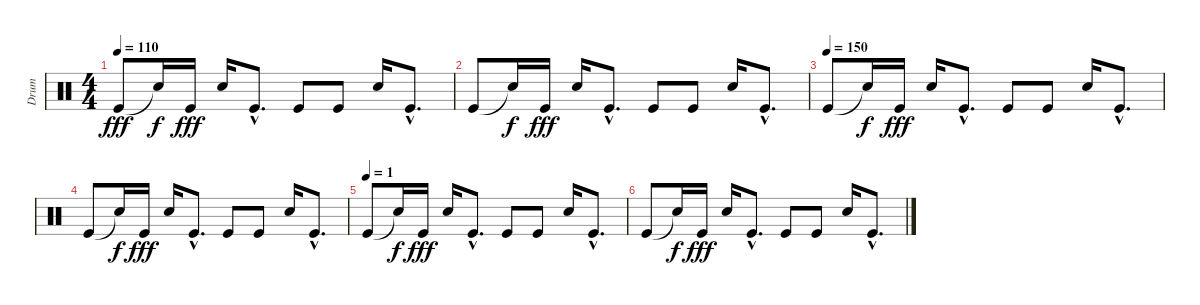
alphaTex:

\track ("Drum" "Drum") {instrument percussion}
\staff {score}
\articulation defaults
\ts (4 4)
\tempo 110
\clef neutral
\ks c "Kick (hit)".8{dy fff} "Snare (hit)"{t}.16{dy f} "Kick (hit)".16{dy fff} "Electric Snare (hit)".16 "Kick (hit)"{hac}.8{d} "Kick (hit)".8 "Kick (hit)".8 "Electric Snare (hit)".16 "Kick (hit)"{hac}.8{d}
|
"Kick (hit)".8 "Snare (hit)"{t}.16{dy f} "Kick (hit)".16{dy fff} "Electric Snare (hit)".16 "Kick (hit)"{hac}.8{d} "Kick (hit)".8 "Kick (hit)".8 "Electric Snare (hit)".16 "Kick (hit)"{hac}.8{d} |
\tempo (150)
"Kick (hit)".8 "Snare (hit)"{t}.16{dy f} "Kick (hit)".16{dy fff} "Electric Snare (hit)".16 "Kick (hit)"{hac}.8{d} "Kick (hit)".8 "Kick (hit)".8 "Electric Snare (hit)".16 "Kick (hit)"{hac}.8{d} |
"Kick (hit)".8 "Snare (hit)"{t}.16{dy f} "Kick (hit)".16{dy fff} "Electric Snare (hit)".16 "Kick (hit)"{hac}.8{d} "Kick (hit)".8 "Kick (hit)".8 "Electric Snare (hit)".16 "Kick (hit)"{hac}.8{d} |
\tempo (1)
"Kick (hit)".8 "Snare (hit)"{t}.16{dy f} "Kick (hit)".16{dy fff} "Electric Snare (hit)".16 "Kick (hit)"{hac}.8{d} "Kick (hit)".8 "Kick (hit)".8 "Electric Snare (hit)".16 "Kick (hit)"{hac}.8{d} |
"Kick (hit)".8 "Snare (hit)"{t}.16{dy f} "Kick (hit)".16{dy fff} "Electric Snare (hit)".16 "Kick (hit)"{hac}.8{d} "Kick (hit)".8 "Kick (hit)".8 "Electric Snare (hit)".16 "Kick (hit)"{hac}.8{d}
